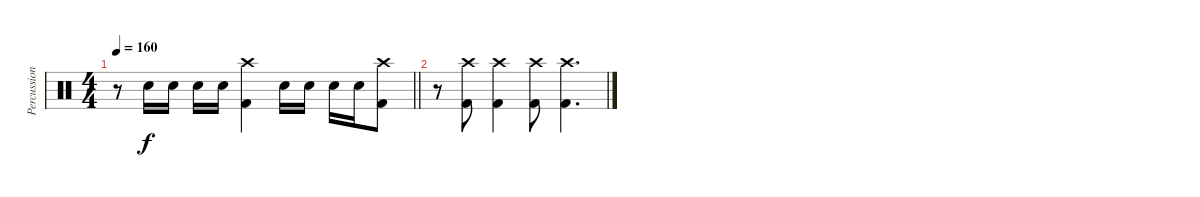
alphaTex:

\track ("Percussion" "Percussion") {instrument percussion}
\staff {score}
\articulation defaults
\ts (4 4)
\tempo 160
\clef neutral
\barLineRight lightlight
\ks c
r.8{dy f} "Electric Snare (hit)".16 "Electric Snare (hit)".16 "Electric Snare (hit)".16 "Electric Snare (hit)".16 ("Crash high (hit)" "Kick (hit) 2").4 "Electric Snare (hit)".16 "Electric Snare (hit)".16 "Electric Snare (hit)".16 "Electric Snare (hit)".16 ("Crash high (hit)" "Kick (hit) 2").8 |
r.8 ("Crash high (hit)" "Kick (hit) 2").8 ("Crash high (hit)" "Kick (hit) 2").4 ("Crash high (hit)" "Kick (hit) 2").8 ("Crash high (hit)" "Kick (hit) 2").4{d}
